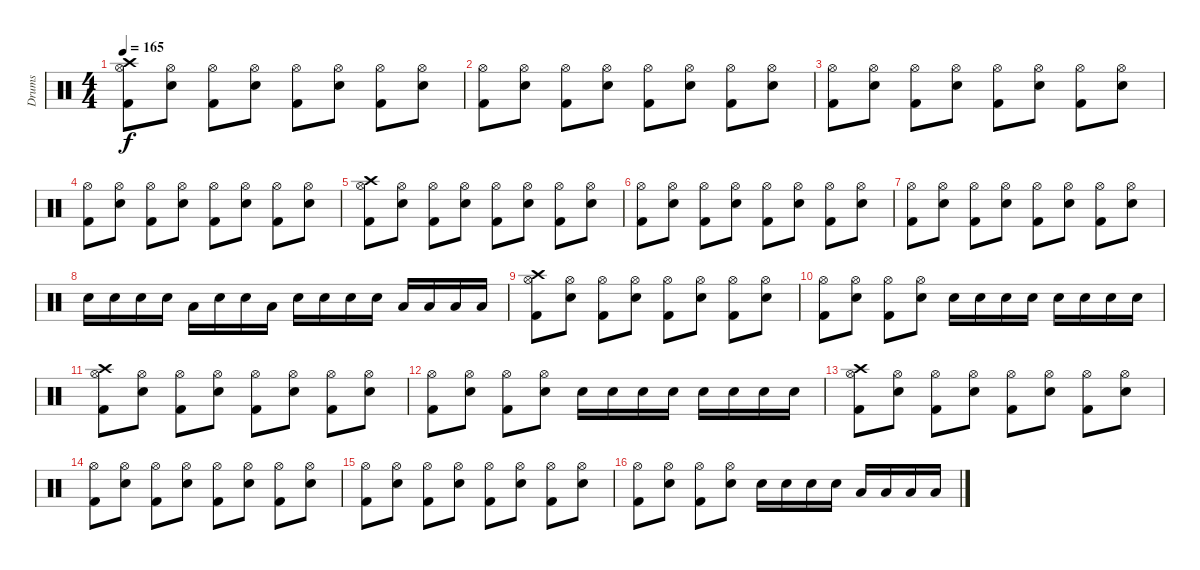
\track ("Drums" "Drums") {instrument percussion}
\staff {score}
\articulation defaults
\ts (4 4)
\tempo 165
\clef neutral
\ks c
("Crash high (hit)" "Hi-Hat (open)" "Kick (hit) 2").8{dy f} ("Hi-Hat (open)" "Snare (hit) 2").8 ("Hi-Hat (open)" "Kick (hit) 2").8 ("Hi-Hat (open)" "Snare (hit) 2").8 ("Hi-Hat (open)" "Kick (hit) 2").8 ("Hi-Hat (open)" "Snare (hit) 2").8 ("Hi-Hat (open)" "Kick (hit) 2").8 ("Hi-Hat (open)" "Snare (hit) 2").8 |
("Hi-Hat (open)" "Kick (hit) 2").8 ("Hi-Hat (open)" "Snare (hit) 2").8 ("Hi-Hat (open)" "Kick (hit) 2").8 ("Hi-Hat (open)" "Snare (hit) 2").8 ("Hi-Hat (open)" "Kick (hit) 2").8 ("Hi-Hat (open)" "Snare (hit) 2").8 ("Hi-Hat (open)" "Kick (hit) 2").8 ("Hi-Hat (open)" "Snare (hit) 2").8 |
("Hi-Hat (open)" "Kick (hit) 2").8 ("Hi-Hat (open)" "Snare (hit) 2").8 ("Hi-Hat (open)" "Kick (hit) 2").8 ("Hi-Hat (open)" "Snare (hit) 2").8 ("Hi-Hat (open)" "Kick (hit) 2").8 ("Hi-Hat (open)" "Snare (hit) 2").8 ("Hi-Hat (open)" "Kick (hit) 2").8 ("Hi-Hat (open)" "Snare (hit) 2").8 |
("Hi-Hat (open)" "Kick (hit) 2").8 ("Hi-Hat (open)" "Snare (hit) 2").8 ("Hi-Hat (open)" "Kick (hit) 2").8 ("Hi-Hat (open)" "Snare (hit) 2").8 ("Hi-Hat (open)" "Kick (hit) 2").8 ("Hi-Hat (open)" "Snare (hit) 2").8 ("Hi-Hat (open)" "Kick (hit) 2").8 ("Hi-Hat (open)" "Snare (hit) 2").8 |
("Crash high (hit)" "Hi-Hat (open)" "Kick (hit) 2").8 ("Hi-Hat (open)" "Snare (hit) 2").8 ("Hi-Hat (open)" "Kick (hit) 2").8 ("Hi-Hat (open)" "Snare (hit) 2").8 ("Hi-Hat (open)" "Kick (hit) 2").8 ("Hi-Hat (open)" "Snare (hit) 2").8 ("Hi-Hat (open)" "Kick (hit) 2").8 ("Hi-Hat (open)" "Snare (hit) 2").8 |
("Hi-Hat (open)" "Kick (hit) 2").8 ("Hi-Hat (open)" "Snare (hit) 2").8 ("Hi-Hat (open)" "Kick (hit) 2").8 ("Hi-Hat (open)" "Snare (hit) 2").8 ("Hi-Hat (open)" "Kick (hit) 2").8 ("Hi-Hat (open)" "Snare (hit) 2").8 ("Hi-Hat (open)" "Kick (hit) 2").8 ("Hi-Hat (open)" "Snare (hit) 2").8 |
("Hi-Hat (open)" "Kick (hit) 2").8 ("Hi-Hat (open)" "Snare (hit) 2").8 ("Hi-Hat (open)" "Kick (hit) 2").8 ("Hi-Hat (open)" "Snare (hit) 2").8 ("Hi-Hat (open)" "Kick (hit) 2").8 ("Hi-Hat (open)" "Snare (hit) 2").8 ("Hi-Hat (open)" "Kick (hit) 2").8 ("Hi-Hat (open)" "Snare (hit) 2").8 |
"Snare (hit) 2".16 "Snare (hit) 2".16 "Snare (hit) 2".16 "Snare (hit) 2".16 "Low Floor Tom (hit)".16 "Snare (hit) 2".16 "Snare (hit) 2".16 "Low Floor Tom (hit)".16 "Snare (hit) 2".16 "Snare (hit) 2".16 "Snare (hit) 2".16 "Snare (hit) 2".16 "Low Tom (hit)".16 "Low Tom (hit)".16 "Low Floor Tom (hit)".16 "Low Floor Tom (hit)".16 |
("Crash high (hit)" "Hi-Hat (open)" "Kick (hit) 2").8 ("Hi-Hat (open)" "Snare (hit) 2").8 ("Hi-Hat (open)" "Kick (hit) 2").8 ("Hi-Hat (open)" "Snare (hit) 2").8 ("Hi-Hat (open)" "Kick (hit) 2").8 ("Hi-Hat (open)" "Snare (hit) 2").8 ("Hi-Hat (open)" "Kick (hit) 2").8 ("Hi-Hat (open)" "Snare (hit) 2").8 |
("Hi-Hat (open)" "Kick (hit) 2").8 ("Hi-Hat (open)" "Snare (hit) 2").8 ("Hi-Hat (open)" "Kick (hit) 2").8 ("Hi-Hat (open)" "Snare (hit) 2").8 "Snare (hit) 2".16 "Snare (hit) 2".16 "Snare (hit) 2".16 "Snare (hit) 2".16 "Snare (hit) 2".16 "Snare (hit) 2".16 "Snare (hit) 2".16 "Snare (hit) 2".16 |
("Crash high (hit)" "Hi-Hat (open)" "Kick (hit) 2").8 ("Hi-Hat (open)" "Snare (hit) 2").8 ("Hi-Hat (open)" "Kick (hit) 2").8 ("Hi-Hat (open)" "Snare (hit) 2").8 ("Hi-Hat (open)" "Kick (hit) 2").8 ("Hi-Hat (open)" "Snare (hit) 2").8 ("Hi-Hat (open)" "Kick (hit) 2").8 ("Hi-Hat (open)" "Snare (hit) 2").8 |
("Hi-Hat (open)" "Kick (hit) 2").8 ("Hi-Hat (open)" "Snare (hit) 2").8 ("Hi-Hat (open)" "Kick (hit) 2").8 ("Hi-Hat (open)" "Snare (hit) 2").8 "Snare (hit) 2".16 "Snare (hit) 2".16 "Snare (hit) 2".16 "Snare (hit) 2".16 "Snare (hit) 2".16 "Snare (hit) 2".16 "Snare (hit) 2".16 "Snare (hit) 2".16 |
("Crash high (hit)" "Hi-Hat (open)" "Kick (hit) 2").8 ("Hi-Hat (open)" "Snare (hit) 2").8 ("Hi-Hat (open)" "Kick (hit) 2").8 ("Hi-Hat (open)" "Snare (hit) 2").8 ("Hi-Hat (open)" "Kick (hit) 2").8 ("Hi-Hat (open)" "Snare (hit) 2").8 ("Hi-Hat (open)" "Kick (hit) 2").8 ("Hi-Hat (open)" "Snare (hit) 2").8 |
("Hi-Hat (open)" "Kick (hit) 2").8 ("Hi-Hat (open)" "Snare (hit) 2").8 ("Hi-Hat (open)" "Kick (hit) 2").8 ("Hi-Hat (open)" "Snare (hit) 2").8 ("Hi-Hat (open)" "Kick (hit) 2").8 ("Hi-Hat (open)" "Snare (hit) 2").8 ("Hi-Hat (open)" "Kick (hit) 2").8 ("Hi-Hat (open)" "Snare (hit) 2").8 |
("Hi-Hat (open)" "Kick (hit) 2").8 ("Hi-Hat (open)" "Snare (hit) 2").8 ("Hi-Hat (open)" "Kick (hit) 2").8 ("Hi-Hat (open)" "Snare (hit) 2").8 ("Hi-Hat (open)" "Kick (hit) 2").8 ("Hi-Hat (open)" "Snare (hit) 2").8 ("Hi-Hat (open)" "Kick (hit) 2").8 ("Hi-Hat (open)" "Snare (hit) 2").8 |
("Hi-Hat (open)" "Kick (hit) 2").8 ("Hi-Hat (open)" "Snare (hit) 2").8 ("Hi-Hat (open)" "Kick (hit) 2").8 ("Hi-Hat (open)" "Snare (hit) 2").8 "Snare (hit) 2".16 "Snare (hit) 2".16 "Snare (hit) 2".16 "Snare (hit) 2".16 "Low Floor Tom (hit)".16 "Low Floor Tom (hit)".16 "Low Floor Tom (hit)".16 "Low Floor Tom (hit)".16
